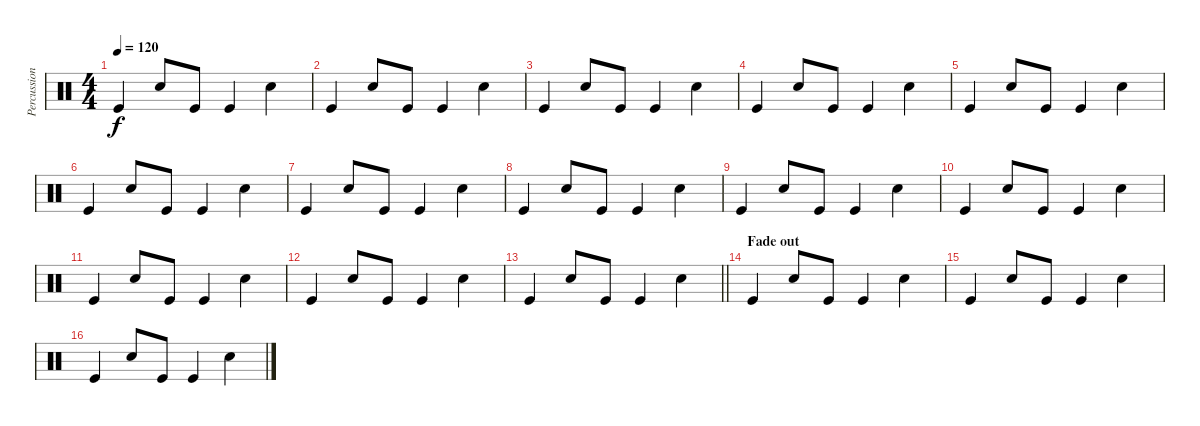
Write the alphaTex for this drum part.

\track ("Percussion" "Percussion") {instrument percussion}
\staff {score}
\articulation defaults
\ts (4 4)
\tempo 120
\clef neutral
\ks c "Kick (hit)".4{dy f} "Electric Snare (hit)".8 "Kick (hit)".8 "Kick (hit)".4 "Electric Snare (hit)".4
|
"Kick (hit)".4 "Electric Snare (hit)".8 "Kick (hit)".8 "Kick (hit)".4 "Electric Snare (hit)".4 |
"Kick (hit)".4 "Electric Snare (hit)".8 "Kick (hit)".8 "Kick (hit)".4 "Electric Snare (hit)".4 |
"Kick (hit)".4 "Electric Snare (hit)".8 "Kick (hit)".8 "Kick (hit)".4 "Electric Snare (hit)".4 |
"Kick (hit)".4 "Electric Snare (hit)".8 "Kick (hit)".8 "Kick (hit)".4 "Electric Snare (hit)".4 |
"Kick (hit)".4 "Electric Snare (hit)".8 "Kick (hit)".8 "Kick (hit)".4 "Electric Snare (hit)".4 |
"Kick (hit)".4 "Electric Snare (hit)".8 "Kick (hit)".8 "Kick (hit)".4 "Electric Snare (hit)".4 |
"Kick (hit)".4 "Electric Snare (hit)".8 "Kick (hit)".8 "Kick (hit)".4 "Electric Snare (hit)".4 |
"Kick (hit)".4 "Electric Snare (hit)".8 "Kick (hit)".8 "Kick (hit)".4 "Electric Snare (hit)".4 |
"Kick (hit)".4 "Electric Snare (hit)".8 "Kick (hit)".8 "Kick (hit)".4 "Electric Snare (hit)".4 |
"Kick (hit)".4 "Electric Snare (hit)".8 "Kick (hit)".8 "Kick (hit)".4 "Electric Snare (hit)".4 |
"Kick (hit)".4 "Electric Snare (hit)".8 "Kick (hit)".8 "Kick (hit)".4 "Electric Snare (hit)".4 |
\barLineRight lightlight "Kick (hit)".4 "Electric Snare (hit)".8 "Kick (hit)".8 "Kick (hit)".4 "Electric Snare (hit)".4
|
\section ("" "Fade out")
"Kick (hit)".4 "Electric Snare (hit)".8 "Kick (hit)".8 "Kick (hit)".4 "Electric Snare (hit)".4 |
"Kick (hit)".4 "Electric Snare (hit)".8 "Kick (hit)".8 "Kick (hit)".4 "Electric Snare (hit)".4 |
"Kick (hit)".4 "Electric Snare (hit)".8 "Kick (hit)".8 "Kick (hit)".4 "Electric Snare (hit)".4
